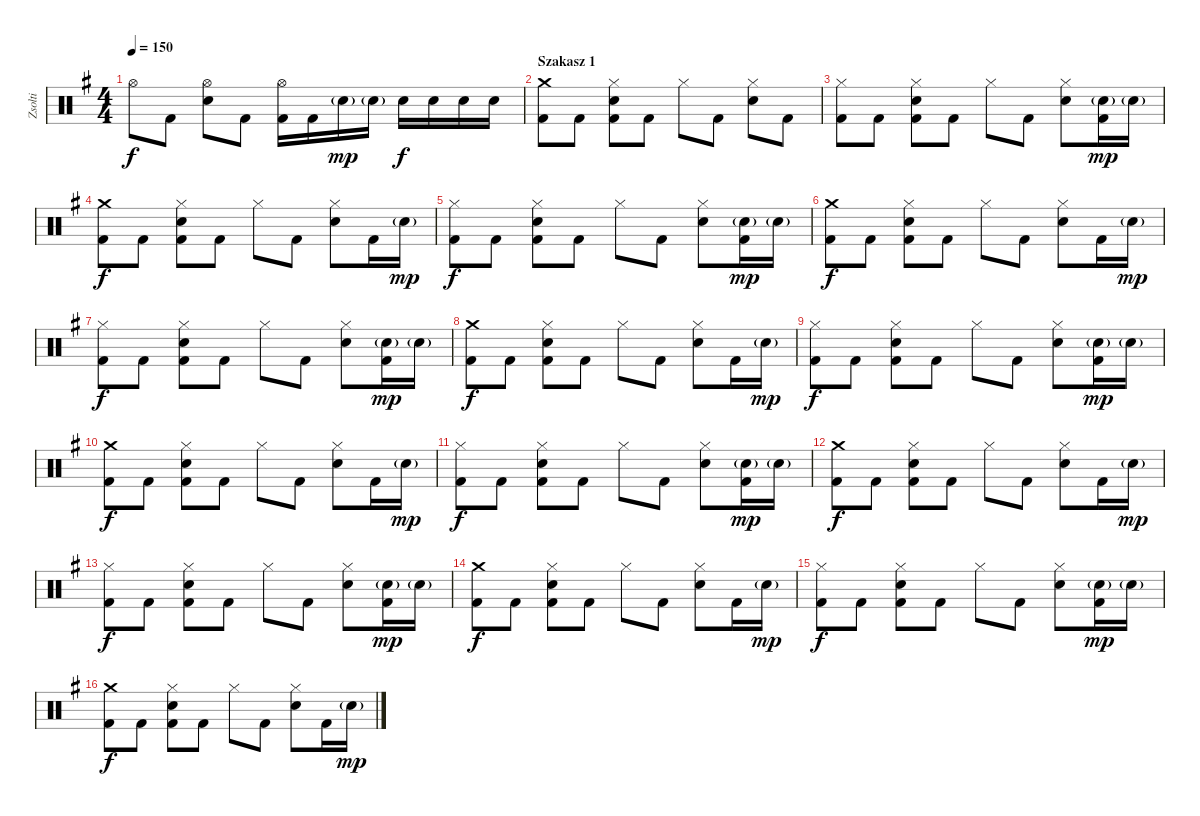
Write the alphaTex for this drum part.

\track ("Zsolti" "Zsolti") {instrument percussion}
\staff {score}
\articulation defaults
\ts (4 4)
\tempo 150
\clef neutral
\ks eminor "Hi-Hat (open)".8{dy f} "Kick (hit) 2".8
("Hi-Hat (open)" "Snare (hit) 2").8 "Kick (hit) 2".8 ("Hi-Hat (open)" "Kick (hit) 2").16 "Kick (hit) 2".16 "Snare (hit) 2"{g}.16{dy mp} "Snare (hit) 2"{g}.16 "Snare (hit) 2".16{dy f} "Snare (hit) 2".16 "Snare (hit) 2".16 "Snare (hit) 2".16 |
\section ("" "Szakasz 1")
("Crash medium (hit)" "Kick (hit) 2").8 "Kick (hit) 2".8 ("Hi-Hat (closed)" "Snare (hit) 2" "Kick (hit) 2").8 "Kick (hit) 2".8 "Hi-Hat (closed)".8 "Kick (hit) 2".8 ("Hi-Hat (closed)" "Snare (hit) 2").8 "Kick (hit) 2".8 |
("Hi-Hat (closed)" "Kick (hit) 2").8 "Kick (hit) 2".8 ("Hi-Hat (closed)" "Snare (hit) 2" "Kick (hit) 2").8 "Kick (hit) 2".8 "Hi-Hat (closed)".8 "Kick (hit) 2".8 ("Hi-Hat (closed)" "Snare (hit) 2").8 ("Snare (hit) 2"{g} "Kick (hit) 2").16{dy mp} "Snare (hit) 2"{g}.16 |
("Crash medium (hit)" "Kick (hit) 2").8{dy f} "Kick (hit) 2".8 ("Hi-Hat (closed)" "Snare (hit) 2" "Kick (hit) 2").8 "Kick (hit) 2".8 "Hi-Hat (closed)".8 "Kick (hit) 2".8 ("Hi-Hat (closed)" "Snare (hit) 2").8 "Kick (hit) 2".16 "Snare (hit) 2"{g}.16{dy mp} |
("Hi-Hat (closed)" "Kick (hit) 2").8{dy f} "Kick (hit) 2".8 ("Hi-Hat (closed)" "Snare (hit) 2" "Kick (hit) 2").8 "Kick (hit) 2".8 "Hi-Hat (closed)".8 "Kick (hit) 2".8 ("Hi-Hat (closed)" "Snare (hit) 2").8 ("Snare (hit) 2"{g} "Kick (hit) 2").16{dy mp} "Snare (hit) 2"{g}.16 |
("Crash medium (hit)" "Kick (hit) 2").8{dy f} "Kick (hit) 2".8 ("Hi-Hat (closed)" "Snare (hit) 2" "Kick (hit) 2").8 "Kick (hit) 2".8 "Hi-Hat (closed)".8 "Kick (hit) 2".8 ("Hi-Hat (closed)" "Snare (hit) 2").8 "Kick (hit) 2".16 "Snare (hit) 2"{g}.16{dy mp} |
("Hi-Hat (closed)" "Kick (hit) 2").8{dy f} "Kick (hit) 2".8 ("Hi-Hat (closed)" "Snare (hit) 2" "Kick (hit) 2").8 "Kick (hit) 2".8 "Hi-Hat (closed)".8 "Kick (hit) 2".8 ("Hi-Hat (closed)" "Snare (hit) 2").8 ("Snare (hit) 2"{g} "Kick (hit) 2").16{dy mp} "Snare (hit) 2"{g}.16 |
("Crash medium (hit)" "Kick (hit) 2").8{dy f} "Kick (hit) 2".8 ("Hi-Hat (closed)" "Snare (hit) 2" "Kick (hit) 2").8 "Kick (hit) 2".8 "Hi-Hat (closed)".8 "Kick (hit) 2".8 ("Hi-Hat (closed)" "Snare (hit) 2").8 "Kick (hit) 2".16 "Snare (hit) 2"{g}.16{dy mp} |
("Hi-Hat (closed)" "Kick (hit) 2").8{dy f} "Kick (hit) 2".8 ("Hi-Hat (closed)" "Snare (hit) 2" "Kick (hit) 2").8 "Kick (hit) 2".8 "Hi-Hat (closed)".8 "Kick (hit) 2".8 ("Hi-Hat (closed)" "Snare (hit) 2").8 ("Snare (hit) 2"{g} "Kick (hit) 2").16{dy mp} "Snare (hit) 2"{g}.16 |
("Crash medium (hit)" "Kick (hit) 2").8{dy f} "Kick (hit) 2".8 ("Hi-Hat (closed)" "Snare (hit) 2" "Kick (hit) 2").8 "Kick (hit) 2".8 "Hi-Hat (closed)".8 "Kick (hit) 2".8 ("Hi-Hat (closed)" "Snare (hit) 2").8 "Kick (hit) 2".16 "Snare (hit) 2"{g}.16{dy mp} |
("Hi-Hat (closed)" "Kick (hit) 2").8{dy f} "Kick (hit) 2".8 ("Hi-Hat (closed)" "Snare (hit) 2" "Kick (hit) 2").8 "Kick (hit) 2".8 "Hi-Hat (closed)".8 "Kick (hit) 2".8 ("Hi-Hat (closed)" "Snare (hit) 2").8 ("Snare (hit) 2"{g} "Kick (hit) 2").16{dy mp} "Snare (hit) 2"{g}.16 |
("Crash medium (hit)" "Kick (hit) 2").8{dy f} "Kick (hit) 2".8 ("Hi-Hat (closed)" "Snare (hit) 2" "Kick (hit) 2").8 "Kick (hit) 2".8 "Hi-Hat (closed)".8 "Kick (hit) 2".8 ("Hi-Hat (closed)" "Snare (hit) 2").8 "Kick (hit) 2".16 "Snare (hit) 2"{g}.16{dy mp} |
("Hi-Hat (closed)" "Kick (hit) 2").8{dy f} "Kick (hit) 2".8 ("Hi-Hat (closed)" "Snare (hit) 2" "Kick (hit) 2").8 "Kick (hit) 2".8 "Hi-Hat (closed)".8 "Kick (hit) 2".8 ("Hi-Hat (closed)" "Snare (hit) 2").8 ("Snare (hit) 2"{g} "Kick (hit) 2").16{dy mp} "Snare (hit) 2"{g}.16 |
("Crash medium (hit)" "Kick (hit) 2").8{dy f} "Kick (hit) 2".8 ("Hi-Hat (closed)" "Snare (hit) 2" "Kick (hit) 2").8 "Kick (hit) 2".8 "Hi-Hat (closed)".8 "Kick (hit) 2".8 ("Hi-Hat (closed)" "Snare (hit) 2").8 "Kick (hit) 2".16 "Snare (hit) 2"{g}.16{dy mp} |
("Hi-Hat (closed)" "Kick (hit) 2").8{dy f} "Kick (hit) 2".8 ("Hi-Hat (closed)" "Snare (hit) 2" "Kick (hit) 2").8 "Kick (hit) 2".8 "Hi-Hat (closed)".8 "Kick (hit) 2".8 ("Hi-Hat (closed)" "Snare (hit) 2").8 ("Snare (hit) 2"{g} "Kick (hit) 2").16{dy mp} "Snare (hit) 2"{g}.16 |
("Crash medium (hit)" "Kick (hit) 2").8{dy f} "Kick (hit) 2".8 ("Hi-Hat (closed)" "Snare (hit) 2" "Kick (hit) 2").8 "Kick (hit) 2".8 "Hi-Hat (closed)".8 "Kick (hit) 2".8 ("Hi-Hat (closed)" "Snare (hit) 2").8 "Kick (hit) 2".16 "Snare (hit) 2"{g}.16{dy mp}
